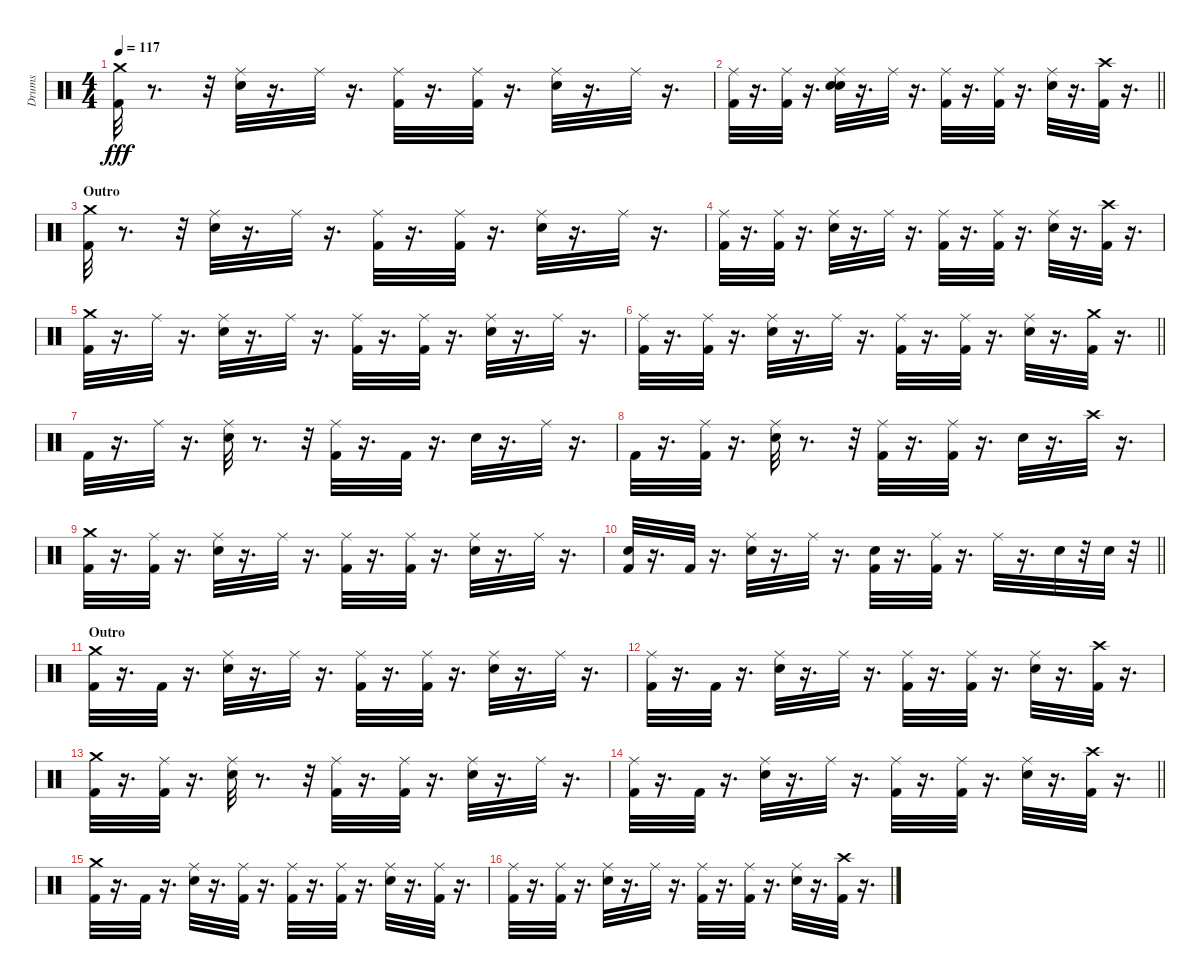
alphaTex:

\track ("Drums" "Drums") {instrument percussion}
\staff {score}
\articulation defaults
\ts (4 4)
\tempo 117
\clef neutral
\ks c
("Kick (hit) 2" "Crash medium (hit)").32{dy fff} r.8{d} r.32 ("Electric Snare (hit)" "Ride (middle)").32 r.16{d} "Ride (middle)".32 r.16{d} ("Kick (hit) 2" "Ride (middle)").32 r.16{d} ("Kick (hit) 2" "Ride (middle)").32 r.16{d} ("Ride (middle)" "Electric Snare (hit)").32 r.16{d} "Ride (middle)".32 r.16{d} |
\barLineRight lightlight
("Kick (hit) 2" "Ride (middle)").32 r.16{d} ("Kick (hit) 2" "Ride (middle)").32 r.16{d} ("Electric Snare (hit)" "Electric Snare (hit)" "Ride (middle)").32 r.16{d} "Ride (middle)".32 r.16{d} ("Ride (middle)" "Kick (hit) 2").32 r.16{d} ("Kick (hit) 2" "Ride (middle)").32 r.16{d} ("Ride (middle)" "Electric Snare (hit)").32 r.16{d} ("Kick (hit) 2" "Crash high (hit)").32 r.16{d} |
\section ("" "Outro")
("Kick (hit) 2" "Crash medium (hit)").32 r.8{d} r.32 ("Ride (middle)" "Electric Snare (hit)").32 r.16{d} "Ride (middle)".32 r.16{d} ("Ride (middle)" "Kick (hit) 2").32 r.16{d} ("Ride (middle)" "Kick (hit) 2").32 r.16{d} ("Electric Snare (hit)" "Ride (middle)").32 r.16{d} "Ride (middle)".32 r.16{d} |
("Kick (hit) 2" "Ride (middle)").32 r.16{d} ("Kick (hit) 2" "Ride (middle)").32 r.16{d} ("Ride (middle)" "Electric Snare (hit)").32 r.16{d} "Ride (middle)".32 r.16{d} ("Ride (middle)" "Kick (hit) 2").32 r.16{d} ("Kick (hit) 2" "Ride (middle)").32 r.16{d} ("Electric Snare (hit)" "Ride (middle)").32 r.16{d} ("Crash high (hit)" "Kick (hit) 2").32 r.16{d} |
("Kick (hit) 2" "Crash medium (hit)").32 r.16{d} "Ride (middle)".32 r.16{d} ("Electric Snare (hit)" "Ride (middle)").32 r.16{d} "Ride (middle)".32 r.16{d} ("Kick (hit) 2" "Ride (middle)").32 r.16{d} ("Ride (middle)" "Kick (hit) 2").32 r.16{d} ("Ride (middle)" "Electric Snare (hit)").32 r.16{d} "Ride (middle)".32 r.16{d} |
\barLineRight lightlight
("Kick (hit) 2" "Ride (middle)").32 r.16{d} ("Kick (hit) 2" "Ride (middle)").32 r.16{d} ("Electric Snare (hit)" "Ride (middle)").32 r.16{d} "Ride (middle)".32 r.16{d} ("Kick (hit) 2" "Ride (middle)").32 r.16{d} ("Kick (hit) 2" "Ride (middle)").32 r.16{d} ("Electric Snare (hit)" "Ride (middle)").32 r.16{d} ("Kick (hit) 2" "Crash medium (hit)").32 r.16{d} |
"Kick (hit) 2".32 r.16{d} "Ride (middle)".32 r.16{d} ("Electric Snare (hit)" "Ride (middle)").32 r.8{d} r.32 ("Kick (hit) 2" "Ride (middle)").32 r.16{d} "Kick (hit) 2".32 r.16{d} "Electric Snare (hit)".32 r.16{d} "Ride (middle)".32 r.16{d} |
"Kick (hit) 2".32 r.16{d} ("Kick (hit) 2" "Ride (middle)").32 r.16{d} ("Electric Snare (hit)" "Ride (middle)").32 r.8{d} r.32 ("Ride (middle)" "Kick (hit) 2").32 r.16{d} ("Ride (middle)" "Kick (hit) 2").32 r.16{d} "Electric Snare (hit)".32 r.16{d} "Crash high (hit)".32 r.16{d} |
("Kick (hit) 2" "Crash medium (hit)").32 r.16{d} ("Kick (hit) 2" "Ride (middle)").32 r.16{d} ("Electric Snare (hit)" "Ride (middle)").32 r.16{d} "Ride (middle)".32 r.16{d} ("Kick (hit) 2" "Ride (middle)").32 r.16{d} ("Kick (hit) 2" "Ride (middle)").32 r.16{d} ("Electric Snare (hit)" "Ride (middle)").32 r.16{d} "Ride (middle)".32 r.16{d} |
\barLineRight lightlight
("Electric Snare (hit)" "Kick (hit) 2").32 r.16{d} "Kick (hit) 2".32 r.16{d} ("Electric Snare (hit)" "Ride (middle)").32 r.16{d} "Ride (middle)".32 r.16{d} ("Electric Snare (hit)" "Kick (hit) 2").32 r.16{d} ("Kick (hit) 2" "Ride (middle)").32 r.16{d} "Ride (middle)".32 r.16{d} "Electric Snare (hit)".32 r.32 "Electric Snare (hit)".32 r.32 |
\section ("" "Outro")
("Kick (hit) 2" "Crash medium (hit)").32 r.16{d} "Kick (hit) 2".32 r.16{d} ("Ride (middle)" "Electric Snare (hit)").32 r.16{d} "Ride (middle)".32 r.16{d} ("Ride (middle)" "Kick (hit) 2").32 r.16{d} ("Ride (middle)" "Kick (hit) 2").32 r.16{d} ("Electric Snare (hit)" "Ride (middle)").32 r.16{d} "Ride (middle)".32 r.16{d} |
("Kick (hit) 2" "Ride (middle)").32 r.16{d} "Kick (hit) 2".32 r.16{d} ("Ride (middle)" "Electric Snare (hit)").32 r.16{d} "Ride (middle)".32 r.16{d} ("Ride (middle)" "Kick (hit) 2").32 r.16{d} ("Kick (hit) 2" "Ride (middle)").32 r.16{d} ("Electric Snare (hit)" "Ride (middle)").32 r.16{d} ("Crash high (hit)" "Kick (hit) 2").32 r.16{d} |
("Kick (hit) 2" "Crash medium (hit)").32 r.16{d} ("Kick (hit) 2" "Ride (middle)").32 r.16{d} ("Electric Snare (hit)" "Ride (middle)").32 r.8{d} r.32 ("Kick (hit) 2" "Ride (middle)").32 r.16{d} ("Ride (middle)" "Kick (hit) 2").32 r.16{d} ("Ride (middle)" "Electric Snare (hit)").32 r.16{d} "Ride (middle)".32 r.16{d} |
\barLineRight lightlight
("Kick (hit) 2" "Ride (middle)").32 r.16{d} "Kick (hit) 2".32 r.16{d} ("Electric Snare (hit)" "Ride (middle)").32 r.16{d} "Ride (middle)".32 r.16{d} ("Kick (hit) 2" "Ride (middle)").32 r.16{d} ("Kick (hit) 2" "Ride (middle)").32 r.16{d} ("Electric Snare (hit)" "Ride (middle)").32 r.16{d} ("Kick (hit) 2" "Crash high (hit)").32 r.16{d} |
("Kick (hit) 2" "Crash medium (hit)").32 r.16{d} "Kick (hit) 2".32 r.16{d} ("Electric Snare (hit)" "Ride (middle)").32 r.16{d} ("Ride (middle)" "Kick (hit) 2").32 r.16{d} ("Kick (hit) 2" "Ride (middle)").32 r.16{d} ("Ride (middle)" "Kick (hit) 2").32 r.16{d} ("Ride (middle)" "Electric Snare (hit)").32 r.16{d} ("Ride (middle)" "Kick (hit) 2").32 r.16{d} |
("Kick (hit) 2" "Ride (middle)").32 r.16{d} ("Kick (hit) 2" "Ride (middle)").32 r.16{d} ("Electric Snare (hit)" "Ride (middle)").32 r.16{d} "Ride (middle)".32 r.16{d} ("Ride (middle)" "Kick (hit) 2").32 r.16{d} ("Ride (middle)" "Kick (hit) 2").32 r.16{d} ("Electric Snare (hit)" "Ride (middle)").32 r.16{d} ("Kick (hit) 2" "Crash high (hit)").32 r.16{d}
